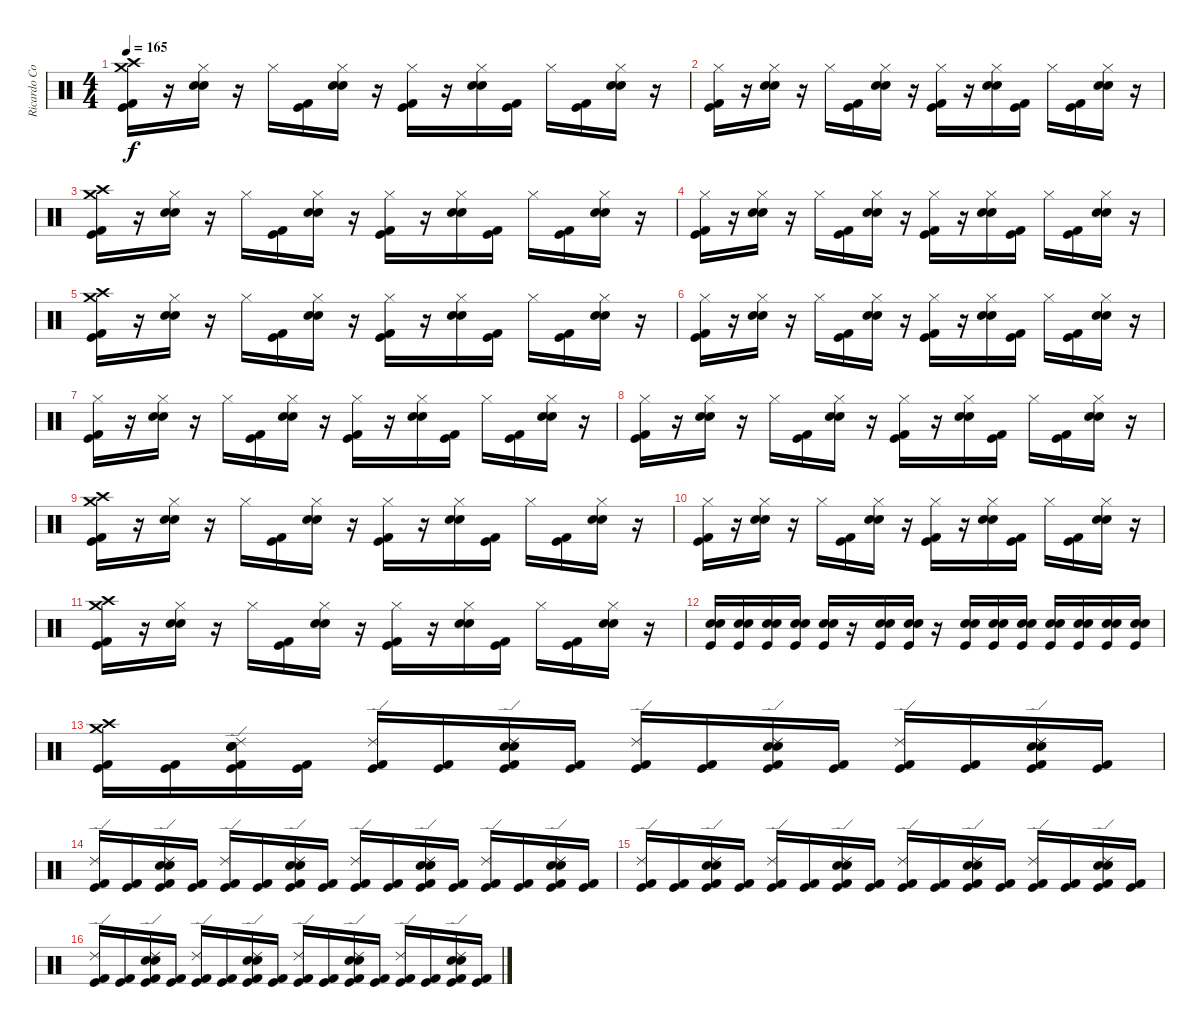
\track ("Ricardo Confessori" "Ricardo Co") {instrument percussion}
\staff {score}
\articulation defaults
\ts (4 4)
\tempo 165
\clef neutral
\ks c
("Crash medium (hit)" "Crash high (hit)" "Kick (hit) 2" "Kick (hit)").16{dy f} r.16 ("Hi-Hat (closed)" "Electric Snare (hit)" "Snare (hit) 2").16 r.16 "Hi-Hat (closed)".16 ("Kick (hit) 2" "Kick (hit)").16 ("Hi-Hat (closed)" "Electric Snare (hit)" "Snare (hit) 2").16 r.16 ("Hi-Hat (closed)" "Kick (hit) 2" "Kick (hit)").16 r.16 ("Hi-Hat (closed)" "Electric Snare (hit)" "Snare (hit) 2").16 ("Kick (hit) 2" "Kick (hit)").16 "Hi-Hat (closed)".16 ("Kick (hit) 2" "Kick (hit)").16 ("Hi-Hat (closed)" "Electric Snare (hit)" "Snare (hit) 2").16 r.16 |
("Hi-Hat (closed)" "Kick (hit) 2" "Kick (hit)").16 r.16 ("Hi-Hat (closed)" "Electric Snare (hit)" "Snare (hit) 2").16 r.16 "Hi-Hat (closed)".16 ("Kick (hit) 2" "Kick (hit)").16 ("Hi-Hat (closed)" "Electric Snare (hit)" "Snare (hit) 2").16 r.16 ("Hi-Hat (closed)" "Kick (hit) 2" "Kick (hit)").16 r.16 ("Hi-Hat (closed)" "Electric Snare (hit)" "Snare (hit) 2").16 ("Kick (hit) 2" "Kick (hit)").16 "Hi-Hat (closed)".16 ("Kick (hit) 2" "Kick (hit)").16 ("Hi-Hat (closed)" "Electric Snare (hit)" "Snare (hit) 2").16 r.16 |
("Crash medium (hit)" "Crash high (hit)" "Kick (hit) 2" "Kick (hit)").16 r.16 ("Hi-Hat (closed)" "Electric Snare (hit)" "Snare (hit) 2").16 r.16 "Hi-Hat (closed)".16 ("Kick (hit) 2" "Kick (hit)").16 ("Hi-Hat (closed)" "Electric Snare (hit)" "Snare (hit) 2").16 r.16 ("Hi-Hat (closed)" "Kick (hit) 2" "Kick (hit)").16 r.16 ("Hi-Hat (closed)" "Electric Snare (hit)" "Snare (hit) 2").16 ("Kick (hit) 2" "Kick (hit)").16 "Hi-Hat (closed)".16 ("Kick (hit) 2" "Kick (hit)").16 ("Hi-Hat (closed)" "Electric Snare (hit)" "Snare (hit) 2").16 r.16 |
("Hi-Hat (closed)" "Kick (hit) 2" "Kick (hit)").16 r.16 ("Hi-Hat (closed)" "Electric Snare (hit)" "Snare (hit) 2").16 r.16 "Hi-Hat (closed)".16 ("Kick (hit) 2" "Kick (hit)").16 ("Hi-Hat (closed)" "Electric Snare (hit)" "Snare (hit) 2").16 r.16 ("Hi-Hat (closed)" "Kick (hit) 2" "Kick (hit)").16 r.16 ("Hi-Hat (closed)" "Electric Snare (hit)" "Snare (hit) 2").16 ("Kick (hit) 2" "Kick (hit)").16 "Hi-Hat (closed)".16 ("Kick (hit) 2" "Kick (hit)").16 ("Hi-Hat (closed)" "Electric Snare (hit)" "Snare (hit) 2").16 r.16 |
("Crash medium (hit)" "Crash high (hit)" "Kick (hit) 2" "Kick (hit)").16 r.16 ("Hi-Hat (closed)" "Electric Snare (hit)" "Snare (hit) 2").16 r.16 "Hi-Hat (closed)".16 ("Kick (hit) 2" "Kick (hit)").16 ("Hi-Hat (closed)" "Electric Snare (hit)" "Snare (hit) 2").16 r.16 ("Hi-Hat (closed)" "Kick (hit) 2" "Kick (hit)").16 r.16 ("Hi-Hat (closed)" "Electric Snare (hit)" "Snare (hit) 2").16 ("Kick (hit) 2" "Kick (hit)").16 "Hi-Hat (closed)".16 ("Kick (hit) 2" "Kick (hit)").16 ("Hi-Hat (closed)" "Electric Snare (hit)" "Snare (hit) 2").16 r.16 |
("Hi-Hat (closed)" "Kick (hit) 2" "Kick (hit)").16 r.16 ("Hi-Hat (closed)" "Electric Snare (hit)" "Snare (hit) 2").16 r.16 "Hi-Hat (closed)".16 ("Kick (hit) 2" "Kick (hit)").16 ("Hi-Hat (closed)" "Electric Snare (hit)" "Snare (hit) 2").16 r.16 ("Hi-Hat (closed)" "Kick (hit) 2" "Kick (hit)").16 r.16 ("Hi-Hat (closed)" "Electric Snare (hit)" "Snare (hit) 2").16 ("Kick (hit) 2" "Kick (hit)").16 "Hi-Hat (closed)".16 ("Kick (hit) 2" "Kick (hit)").16 ("Hi-Hat (closed)" "Electric Snare (hit)" "Snare (hit) 2").16 r.16 |
("Hi-Hat (closed)" "Kick (hit) 2" "Kick (hit)").16 r.16 ("Hi-Hat (closed)" "Electric Snare (hit)" "Snare (hit) 2").16 r.16 "Hi-Hat (closed)".16 ("Kick (hit) 2" "Kick (hit)").16 ("Hi-Hat (closed)" "Electric Snare (hit)" "Snare (hit) 2").16 r.16 ("Hi-Hat (closed)" "Kick (hit) 2" "Kick (hit)").16 r.16 ("Hi-Hat (closed)" "Electric Snare (hit)" "Snare (hit) 2").16 ("Kick (hit) 2" "Kick (hit)").16 "Hi-Hat (closed)".16 ("Kick (hit) 2" "Kick (hit)").16 ("Hi-Hat (closed)" "Electric Snare (hit)" "Snare (hit) 2").16 r.16 |
("Hi-Hat (closed)" "Kick (hit) 2" "Kick (hit)").16 r.16 ("Hi-Hat (closed)" "Electric Snare (hit)" "Snare (hit) 2").16 r.16 "Hi-Hat (closed)".16 ("Kick (hit) 2" "Kick (hit)").16 ("Hi-Hat (closed)" "Electric Snare (hit)" "Snare (hit) 2").16 r.16 ("Hi-Hat (closed)" "Kick (hit) 2" "Kick (hit)").16 r.16 ("Hi-Hat (closed)" "Electric Snare (hit)" "Snare (hit) 2").16 ("Kick (hit) 2" "Kick (hit)").16 "Hi-Hat (closed)".16 ("Kick (hit) 2" "Kick (hit)").16 ("Hi-Hat (closed)" "Electric Snare (hit)" "Snare (hit) 2").16 r.16 |
("Crash high (hit)" "Crash medium (hit)" "Kick (hit) 2" "Kick (hit)").16 r.16 ("Hi-Hat (closed)" "Electric Snare (hit)" "Snare (hit) 2").16 r.16 "Hi-Hat (closed)".16 ("Kick (hit) 2" "Kick (hit)").16 ("Hi-Hat (closed)" "Electric Snare (hit)" "Snare (hit) 2").16 r.16 ("Hi-Hat (closed)" "Kick (hit) 2" "Kick (hit)").16 r.16 ("Hi-Hat (closed)" "Electric Snare (hit)" "Snare (hit) 2").16 ("Kick (hit) 2" "Kick (hit)").16 "Hi-Hat (closed)".16 ("Kick (hit) 2" "Kick (hit)").16 ("Hi-Hat (closed)" "Electric Snare (hit)" "Snare (hit) 2").16 r.16 |
("Hi-Hat (closed)" "Kick (hit) 2" "Kick (hit)").16 r.16 ("Hi-Hat (closed)" "Electric Snare (hit)" "Snare (hit) 2").16 r.16 "Hi-Hat (closed)".16 ("Kick (hit) 2" "Kick (hit)").16 ("Hi-Hat (closed)" "Electric Snare (hit)" "Snare (hit) 2").16 r.16 ("Hi-Hat (closed)" "Kick (hit) 2" "Kick (hit)").16 r.16 ("Hi-Hat (closed)" "Electric Snare (hit)" "Snare (hit) 2").16 ("Kick (hit) 2" "Kick (hit)").16 "Hi-Hat (closed)".16 ("Kick (hit) 2" "Kick (hit)").16 ("Hi-Hat (closed)" "Electric Snare (hit)" "Snare (hit) 2").16 r.16 |
("Crash medium (hit)" "Crash high (hit)" "Kick (hit) 2" "Kick (hit)").16 r.16 ("Hi-Hat (closed)" "Electric Snare (hit)" "Snare (hit) 2").16 r.16 "Hi-Hat (closed)".16 ("Kick (hit) 2" "Kick (hit)").16 ("Hi-Hat (closed)" "Electric Snare (hit)" "Snare (hit) 2").16 r.16 ("Hi-Hat (closed)" "Kick (hit) 2" "Kick (hit)").16 r.16 ("Hi-Hat (closed)" "Electric Snare (hit)" "Snare (hit) 2").16 ("Kick (hit) 2" "Kick (hit)").16 "Hi-Hat (closed)".16 ("Kick (hit) 2" "Kick (hit)").16 ("Hi-Hat (closed)" "Electric Snare (hit)" "Snare (hit) 2").16 r.16 |
("Kick (hit)" "Electric Snare (hit)" "Snare (hit) 2").16 ("Kick (hit)" "Electric Snare (hit)" "Snare (hit) 2").16 ("Kick (hit)" "Electric Snare (hit)" "Snare (hit) 2").16 ("Kick (hit)" "Electric Snare (hit)" "Snare (hit) 2").16 ("Kick (hit)" "Electric Snare (hit)" "Snare (hit) 2").16 r.16 ("Kick (hit)" "Electric Snare (hit)" "Snare (hit) 2").16 ("Kick (hit)" "Electric Snare (hit)" "Snare (hit) 2").16 r.16 ("Kick (hit)" "Electric Snare (hit)" "Snare (hit) 2").16 ("Kick (hit)" "Electric Snare (hit)" "Snare (hit) 2").16 ("Kick (hit)" "Electric Snare (hit)" "Snare (hit) 2").16 ("Kick (hit)" "Electric Snare (hit)" "Snare (hit) 2").16 ("Kick (hit)" "Electric Snare (hit)" "Snare (hit) 2").16 ("Kick (hit)" "Electric Snare (hit)" "Snare (hit) 2").16 ("Kick (hit)" "Electric Snare (hit)" "Snare (hit) 2").16 |
("Crash high (hit)" "Crash medium (hit)" "Kick (hit) 2" "Kick (hit)").16 ("Kick (hit) 2" "Kick (hit)").16 ("Ride (edge) 2" "Electric Snare (hit)" "Snare (hit) 2" "Kick (hit) 2" "Kick (hit)").16 ("Kick (hit) 2" "Kick (hit)").16 ("Ride (edge) 2" "Kick (hit) 2" "Kick (hit)").16 ("Kick (hit)" "Kick (hit) 2").16 ("Ride (edge) 2" "Snare (hit) 2" "Electric Snare (hit)" "Kick (hit) 2" "Kick (hit)").16 ("Kick (hit) 2" "Kick (hit)").16 ("Ride (edge) 2" "Kick (hit) 2" "Kick (hit)").16 ("Kick (hit) 2" "Kick (hit)").16 ("Ride (edge) 2" "Electric Snare (hit)" "Snare (hit) 2" "Kick (hit) 2" "Kick (hit)").16 ("Kick (hit) 2" "Kick (hit)").16 ("Ride (edge) 2" "Kick (hit) 2" "Kick (hit)").16 ("Kick (hit) 2" "Kick (hit)").16 ("Ride (edge) 2" "Electric Snare (hit)" "Snare (hit) 2" "Kick (hit) 2" "Kick (hit)").16 ("Kick (hit) 2" "Kick (hit)").16 |
("Ride (edge) 2" "Kick (hit) 2" "Kick (hit)").16 ("Kick (hit) 2" "Kick (hit)").16 ("Ride (edge) 2" "Electric Snare (hit)" "Snare (hit) 2" "Kick (hit) 2" "Kick (hit)").16 ("Kick (hit) 2" "Kick (hit)").16 ("Ride (edge) 2" "Kick (hit) 2" "Kick (hit)").16 ("Kick (hit) 2" "Kick (hit)").16 ("Ride (edge) 2" "Electric Snare (hit)" "Snare (hit) 2" "Kick (hit) 2" "Kick (hit)").16 ("Kick (hit) 2" "Kick (hit)").16 ("Ride (edge) 2" "Kick (hit) 2" "Kick (hit)").16 ("Kick (hit) 2" "Kick (hit)").16 ("Ride (edge) 2" "Electric Snare (hit)" "Snare (hit) 2" "Kick (hit) 2" "Kick (hit)").16 ("Kick (hit) 2" "Kick (hit)").16 ("Ride (edge) 2" "Kick (hit) 2" "Kick (hit)").16 ("Kick (hit) 2" "Kick (hit)").16 ("Ride (edge) 2" "Electric Snare (hit)" "Snare (hit) 2" "Kick (hit) 2" "Kick (hit)").16 ("Kick (hit) 2" "Kick (hit)").16 |
("Ride (edge) 2" "Kick (hit) 2" "Kick (hit)").16 ("Kick (hit) 2" "Kick (hit)").16 ("Ride (edge) 2" "Electric Snare (hit)" "Snare (hit) 2" "Kick (hit) 2" "Kick (hit)").16 ("Kick (hit) 2" "Kick (hit)").16 ("Ride (edge) 2" "Kick (hit) 2" "Kick (hit)").16 ("Kick (hit) 2" "Kick (hit)").16 ("Ride (edge) 2" "Electric Snare (hit)" "Snare (hit) 2" "Kick (hit) 2" "Kick (hit)").16 ("Kick (hit) 2" "Kick (hit)").16 ("Ride (edge) 2" "Kick (hit) 2" "Kick (hit)").16 ("Kick (hit) 2" "Kick (hit)").16 ("Ride (edge) 2" "Electric Snare (hit)" "Snare (hit) 2" "Kick (hit) 2" "Kick (hit)").16 ("Kick (hit) 2" "Kick (hit)").16 ("Ride (edge) 2" "Kick (hit) 2" "Kick (hit)").16 ("Kick (hit) 2" "Kick (hit)").16 ("Ride (edge) 2" "Electric Snare (hit)" "Snare (hit) 2" "Kick (hit) 2" "Kick (hit)").16 ("Kick (hit) 2" "Kick (hit)").16 |
("Ride (edge) 2" "Kick (hit) 2" "Kick (hit)").16 ("Kick (hit) 2" "Kick (hit)").16 ("Ride (edge) 2" "Electric Snare (hit)" "Snare (hit) 2" "Kick (hit) 2" "Kick (hit)").16 ("Kick (hit) 2" "Kick (hit)").16 ("Ride (edge) 2" "Kick (hit) 2" "Kick (hit)").16 ("Kick (hit) 2" "Kick (hit)").16 ("Ride (edge) 2" "Electric Snare (hit)" "Snare (hit) 2" "Kick (hit) 2" "Kick (hit)").16 ("Kick (hit) 2" "Kick (hit)").16 ("Ride (edge) 2" "Kick (hit) 2" "Kick (hit)").16 ("Kick (hit) 2" "Kick (hit)").16 ("Ride (edge) 2" "Electric Snare (hit)" "Snare (hit) 2" "Kick (hit) 2" "Kick (hit)").16 ("Kick (hit) 2" "Kick (hit)").16 ("Ride (edge) 2" "Kick (hit) 2" "Kick (hit)").16 ("Kick (hit) 2" "Kick (hit)").16 ("Ride (edge) 2" "Electric Snare (hit)" "Snare (hit) 2" "Kick (hit) 2" "Kick (hit)").16 ("Kick (hit) 2" "Kick (hit)").16
